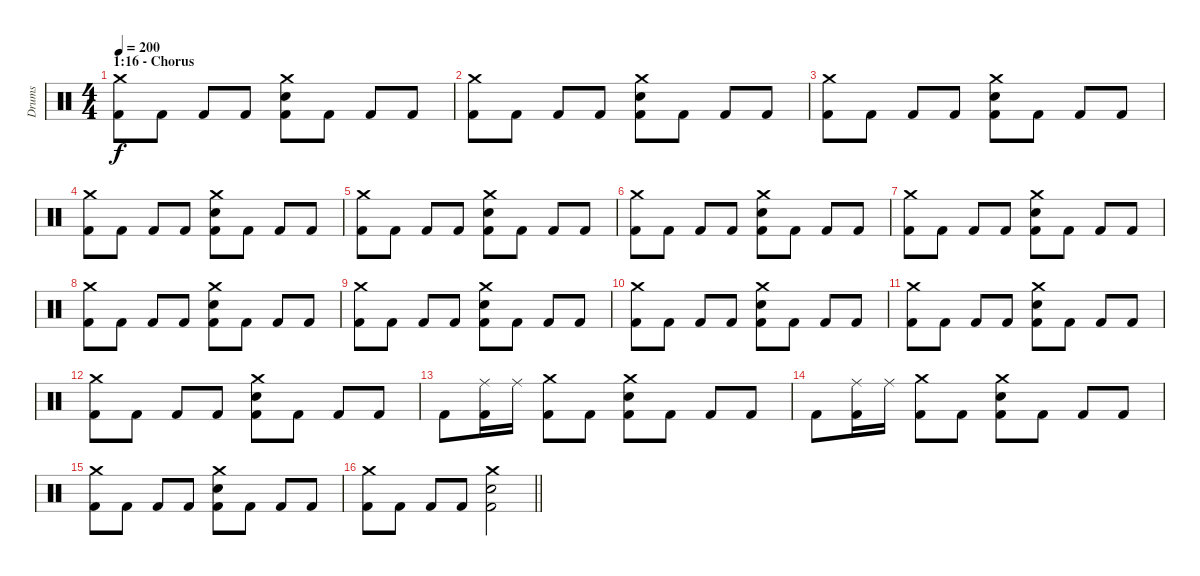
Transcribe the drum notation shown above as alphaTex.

\track ("Drums" "Drums") {instrument percussion}
\staff {score}
\articulation defaults
\ts (4 4)
\section ("" "1:16 - Chorus")
\tempo 200
\clef neutral
\ks c
("Crash medium (hit)" "Kick (hit) 2").8{dy f} "Kick (hit) 2".8 "Kick (hit) 2".8 "Kick (hit) 2".8 ("Crash medium (hit)" "Electric Snare (hit)" "Kick (hit) 2").8 "Kick (hit) 2".8 "Kick (hit) 2".8 "Kick (hit) 2".8 |
("Crash medium (hit)" "Kick (hit) 2").8 "Kick (hit) 2".8 "Kick (hit) 2".8 "Kick (hit) 2".8 ("Crash medium (hit)" "Electric Snare (hit)" "Kick (hit) 2").8 "Kick (hit) 2".8 "Kick (hit) 2".8 "Kick (hit) 2".8 |
("Crash medium (hit)" "Kick (hit) 2").8 "Kick (hit) 2".8 "Kick (hit) 2".8 "Kick (hit) 2".8 ("Crash medium (hit)" "Electric Snare (hit)" "Kick (hit) 2").8 "Kick (hit) 2".8 "Kick (hit) 2".8 "Kick (hit) 2".8 |
("Crash medium (hit)" "Kick (hit) 2").8 "Kick (hit) 2".8 "Kick (hit) 2".8 "Kick (hit) 2".8 ("Crash medium (hit)" "Electric Snare (hit)" "Kick (hit) 2").8 "Kick (hit) 2".8 "Kick (hit) 2".8 "Kick (hit) 2".8 |
("Crash medium (hit)" "Kick (hit) 2").8 "Kick (hit) 2".8 "Kick (hit) 2".8 "Kick (hit) 2".8 ("Crash medium (hit)" "Electric Snare (hit)" "Kick (hit) 2").8 "Kick (hit) 2".8 "Kick (hit) 2".8 "Kick (hit) 2".8 |
("Crash medium (hit)" "Kick (hit) 2").8 "Kick (hit) 2".8 "Kick (hit) 2".8 "Kick (hit) 2".8 ("Crash medium (hit)" "Electric Snare (hit)" "Kick (hit) 2").8 "Kick (hit) 2".8 "Kick (hit) 2".8 "Kick (hit) 2".8 |
("Crash medium (hit)" "Kick (hit) 2").8 "Kick (hit) 2".8 "Kick (hit) 2".8 "Kick (hit) 2".8 ("Crash medium (hit)" "Electric Snare (hit)" "Kick (hit) 2").8 "Kick (hit) 2".8 "Kick (hit) 2".8 "Kick (hit) 2".8 |
("Crash medium (hit)" "Kick (hit) 2").8 "Kick (hit) 2".8 "Kick (hit) 2".8 "Kick (hit) 2".8 ("Crash medium (hit)" "Electric Snare (hit)" "Kick (hit) 2").8 "Kick (hit) 2".8 "Kick (hit) 2".8 "Kick (hit) 2".8 |
("Crash medium (hit)" "Kick (hit) 2").8 "Kick (hit) 2".8 "Kick (hit) 2".8 "Kick (hit) 2".8 ("Crash medium (hit)" "Electric Snare (hit)" "Kick (hit) 2").8 "Kick (hit) 2".8 "Kick (hit) 2".8 "Kick (hit) 2".8 |
("Crash medium (hit)" "Kick (hit) 2").8 "Kick (hit) 2".8 "Kick (hit) 2".8 "Kick (hit) 2".8 ("Crash medium (hit)" "Electric Snare (hit)" "Kick (hit) 2").8 "Kick (hit) 2".8 "Kick (hit) 2".8 "Kick (hit) 2".8 |
("Crash medium (hit)" "Kick (hit) 2").8 "Kick (hit) 2".8 "Kick (hit) 2".8 "Kick (hit) 2".8 ("Crash medium (hit)" "Electric Snare (hit)" "Kick (hit) 2").8 "Kick (hit) 2".8 "Kick (hit) 2".8 "Kick (hit) 2".8 |
("Crash medium (hit)" "Kick (hit) 2").8 "Kick (hit) 2".8 "Kick (hit) 2".8 "Kick (hit) 2".8 ("Crash medium (hit)" "Electric Snare (hit)" "Kick (hit) 2").8 "Kick (hit) 2".8 "Kick (hit) 2".8 "Kick (hit) 2".8 |
"Kick (hit) 2".8 ("Ride (middle)" "Kick (hit) 2").16 "Ride (middle)".16 ("Crash medium (hit)" "Kick (hit) 2").8 "Kick (hit) 2".8 ("Crash medium (hit)" "Electric Snare (hit)" "Kick (hit) 2").8 "Kick (hit) 2".8 "Kick (hit) 2".8 "Kick (hit) 2".8 |
"Kick (hit) 2".8 ("Ride (middle)" "Kick (hit) 2").16 "Ride (middle)".16 ("Crash medium (hit)" "Kick (hit) 2").8 "Kick (hit) 2".8 ("Crash medium (hit)" "Electric Snare (hit)" "Kick (hit) 2").8 "Kick (hit) 2".8 "Kick (hit) 2".8 "Kick (hit) 2".8 |
("Crash medium (hit)" "Kick (hit) 2").8 "Kick (hit) 2".8 "Kick (hit) 2".8 "Kick (hit) 2".8 ("Crash medium (hit)" "Electric Snare (hit)" "Kick (hit) 2").8 "Kick (hit) 2".8 "Kick (hit) 2".8 "Kick (hit) 2".8 |
\barLineRight lightlight
("Crash medium (hit)" "Kick (hit) 2").8 "Kick (hit) 2".8 "Kick (hit) 2".8 "Kick (hit) 2".8 ("Crash medium (hit)" "Electric Snare (hit)" "Kick (hit) 2").2
